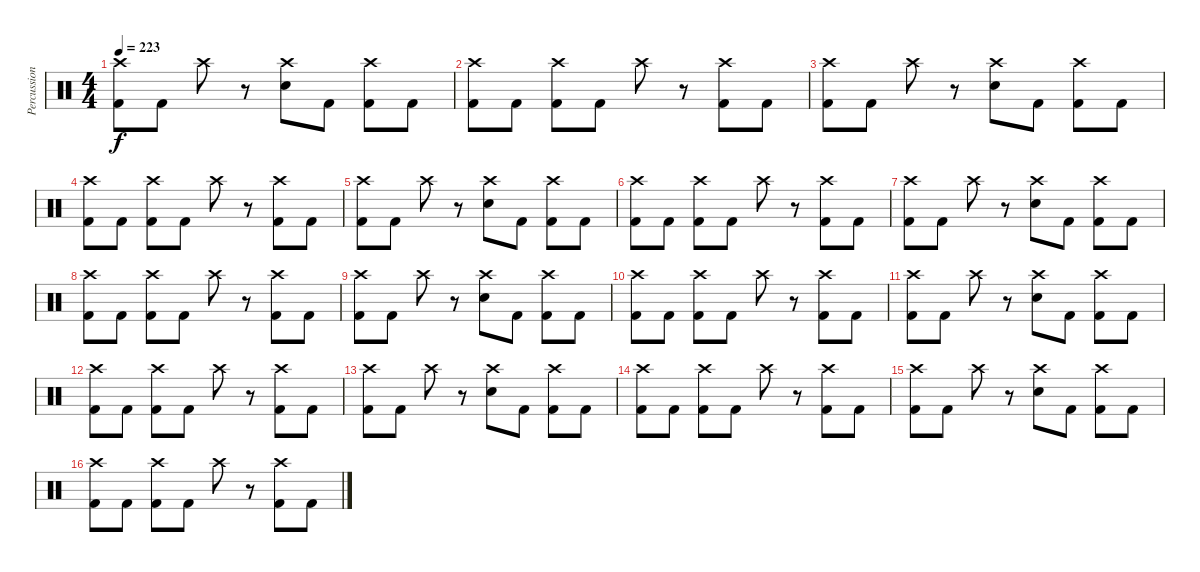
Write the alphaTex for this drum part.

\track ("Percussion" "Percussion") {instrument percussion}
\staff {score}
\articulation defaults
\ts (4 4)
\tempo 223
\clef neutral
\ks c
("Crash high (hit)" "Kick (hit) 2").8{dy f} "Kick (hit) 2".8 "Crash high (hit)".8 r.8 ("Crash high (hit)" "Electric Snare (hit)").8 "Kick (hit) 2".8 ("Crash high (hit)" "Kick (hit) 2").8 "Kick (hit) 2".8 |
("Crash high (hit)" "Kick (hit) 2").8 "Kick (hit) 2".8 ("Crash high (hit)" "Kick (hit) 2").8 "Kick (hit) 2".8 "Crash high (hit)".8 r.8 ("Crash high (hit)" "Kick (hit) 2").8 "Kick (hit) 2".8 |
("Crash high (hit)" "Kick (hit) 2").8 "Kick (hit) 2".8 "Crash high (hit)".8 r.8 ("Crash high (hit)" "Electric Snare (hit)").8 "Kick (hit) 2".8 ("Crash high (hit)" "Kick (hit) 2").8 "Kick (hit) 2".8 |
("Crash high (hit)" "Kick (hit) 2").8 "Kick (hit) 2".8 ("Crash high (hit)" "Kick (hit) 2").8 "Kick (hit) 2".8 "Crash high (hit)".8 r.8 ("Crash high (hit)" "Kick (hit) 2").8 "Kick (hit) 2".8 |
("Crash high (hit)" "Kick (hit) 2").8 "Kick (hit) 2".8 "Crash high (hit)".8 r.8 ("Crash high (hit)" "Electric Snare (hit)").8 "Kick (hit) 2".8 ("Crash high (hit)" "Kick (hit) 2").8 "Kick (hit) 2".8 |
("Crash high (hit)" "Kick (hit) 2").8 "Kick (hit) 2".8 ("Crash high (hit)" "Kick (hit) 2").8 "Kick (hit) 2".8 "Crash high (hit)".8 r.8 ("Crash high (hit)" "Kick (hit) 2").8 "Kick (hit) 2".8 |
("Crash high (hit)" "Kick (hit) 2").8 "Kick (hit) 2".8 "Crash high (hit)".8 r.8 ("Crash high (hit)" "Electric Snare (hit)").8 "Kick (hit) 2".8 ("Crash high (hit)" "Kick (hit) 2").8 "Kick (hit) 2".8 |
("Crash high (hit)" "Kick (hit) 2").8 "Kick (hit) 2".8 ("Crash high (hit)" "Kick (hit) 2").8 "Kick (hit) 2".8 "Crash high (hit)".8 r.8 ("Crash high (hit)" "Kick (hit) 2").8 "Kick (hit) 2".8 |
("Crash high (hit)" "Kick (hit) 2").8 "Kick (hit) 2".8 "Crash high (hit)".8 r.8 ("Crash high (hit)" "Electric Snare (hit)").8 "Kick (hit) 2".8 ("Crash high (hit)" "Kick (hit) 2").8 "Kick (hit) 2".8 |
("Crash high (hit)" "Kick (hit) 2").8 "Kick (hit) 2".8 ("Crash high (hit)" "Kick (hit) 2").8 "Kick (hit) 2".8 "Crash high (hit)".8 r.8 ("Crash high (hit)" "Kick (hit) 2").8 "Kick (hit) 2".8 |
("Crash high (hit)" "Kick (hit) 2").8 "Kick (hit) 2".8 "Crash high (hit)".8 r.8 ("Crash high (hit)" "Electric Snare (hit)").8 "Kick (hit) 2".8 ("Crash high (hit)" "Kick (hit) 2").8 "Kick (hit) 2".8 |
("Crash high (hit)" "Kick (hit) 2").8 "Kick (hit) 2".8 ("Crash high (hit)" "Kick (hit) 2").8 "Kick (hit) 2".8 "Crash high (hit)".8 r.8 ("Crash high (hit)" "Kick (hit) 2").8 "Kick (hit) 2".8 |
("Crash high (hit)" "Kick (hit) 2").8 "Kick (hit) 2".8 "Crash high (hit)".8 r.8 ("Crash high (hit)" "Electric Snare (hit)").8 "Kick (hit) 2".8 ("Crash high (hit)" "Kick (hit) 2").8 "Kick (hit) 2".8 |
("Crash high (hit)" "Kick (hit) 2").8 "Kick (hit) 2".8 ("Crash high (hit)" "Kick (hit) 2").8 "Kick (hit) 2".8 "Crash high (hit)".8 r.8 ("Crash high (hit)" "Kick (hit) 2").8 "Kick (hit) 2".8 |
("Crash high (hit)" "Kick (hit) 2").8 "Kick (hit) 2".8 "Crash high (hit)".8 r.8 ("Crash high (hit)" "Electric Snare (hit)").8 "Kick (hit) 2".8 ("Crash high (hit)" "Kick (hit) 2").8 "Kick (hit) 2".8 |
("Crash high (hit)" "Kick (hit) 2").8 "Kick (hit) 2".8 ("Crash high (hit)" "Kick (hit) 2").8 "Kick (hit) 2".8 "Crash high (hit)".8 r.8 ("Crash high (hit)" "Kick (hit) 2").8 "Kick (hit) 2".8
